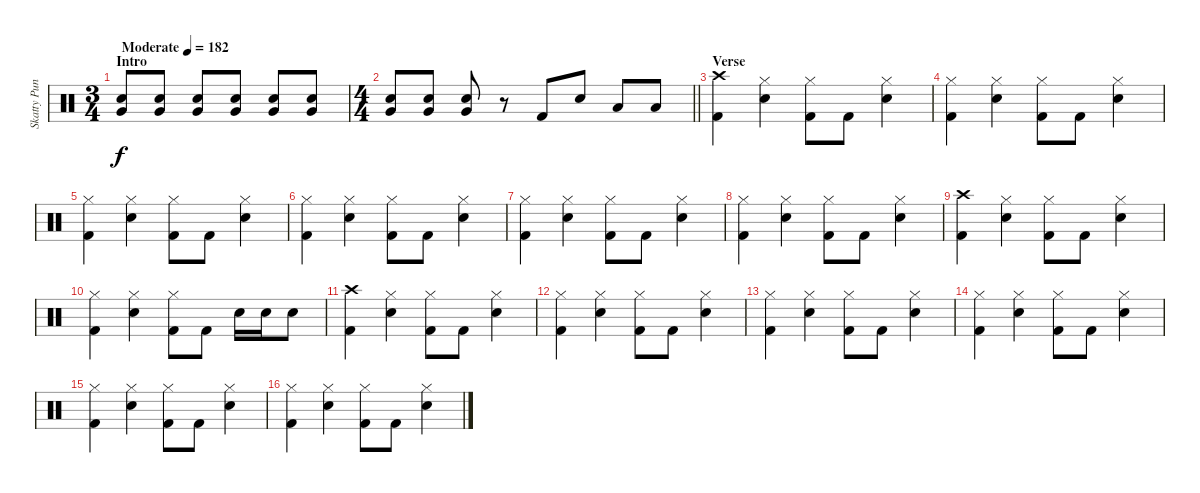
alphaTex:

\track ("Skatty Punk Rock" "Skatty Pun") {instrument percussion}
\staff {score}
\articulation defaults
\ts (3 4)
\section ("" "Intro")
\tempo (182 "Moderate")
\clef neutral
\ks c
("Snare (hit) 2" "Very Low Tom (hit)").8{dy f} ("Snare (hit) 2" "Very Low Tom (hit)").8 ("Snare (hit) 2" "Very Low Tom (hit)").8 ("Snare (hit) 2" "Very Low Tom (hit)").8 ("Snare (hit) 2" "Very Low Tom (hit)").8 ("Snare (hit) 2" "Very Low Tom (hit)").8 |
\ts (4 4)
\barLineRight lightlight
("Snare (hit) 2" "Very Low Tom (hit)").8 ("Snare (hit) 2" "Very Low Tom (hit)").8 ("Snare (hit) 2" "Very Low Tom (hit)").8 r.8 "Kick (hit) 2".8 "Snare (hit) 2".8 "Low Tom (hit)".8 "Low Tom (hit)".8 |
\section ("" "Verse")
("Kick (hit) 2" "Crash high (hit)").4 ("Snare (hit) 2" "Hi-Hat (closed)").4 ("Kick (hit) 2" "Hi-Hat (closed)").8 "Kick (hit) 2".8 ("Snare (hit) 2" "Hi-Hat (closed)").4 |
("Kick (hit) 2" "Hi-Hat (closed)").4 ("Snare (hit) 2" "Hi-Hat (closed)").4 ("Kick (hit) 2" "Hi-Hat (closed)").8 "Kick (hit) 2".8 ("Snare (hit) 2" "Hi-Hat (closed)").4 |
("Kick (hit) 2" "Hi-Hat (closed)").4 ("Snare (hit) 2" "Hi-Hat (closed)").4 ("Kick (hit) 2" "Hi-Hat (closed)").8 "Kick (hit) 2".8 ("Snare (hit) 2" "Hi-Hat (closed)").4 |
("Kick (hit) 2" "Hi-Hat (closed)").4 ("Snare (hit) 2" "Hi-Hat (closed)").4 ("Kick (hit) 2" "Hi-Hat (closed)").8 "Kick (hit) 2".8 ("Snare (hit) 2" "Hi-Hat (closed)").4 |
("Kick (hit) 2" "Hi-Hat (closed)").4 ("Snare (hit) 2" "Hi-Hat (closed)").4 ("Kick (hit) 2" "Hi-Hat (closed)").8 "Kick (hit) 2".8 ("Snare (hit) 2" "Hi-Hat (closed)").4 |
("Kick (hit) 2" "Hi-Hat (closed)").4 ("Snare (hit) 2" "Hi-Hat (closed)").4 ("Kick (hit) 2" "Hi-Hat (closed)").8 "Kick (hit) 2".8 ("Snare (hit) 2" "Hi-Hat (closed)").4 |
("Kick (hit) 2" "Crash high (hit)").4 ("Snare (hit) 2" "Hi-Hat (closed)").4 ("Kick (hit) 2" "Hi-Hat (closed)").8 "Kick (hit) 2".8 ("Snare (hit) 2" "Hi-Hat (closed)").4 |
("Kick (hit) 2" "Hi-Hat (closed)").4 ("Snare (hit) 2" "Hi-Hat (closed)").4 ("Kick (hit) 2" "Hi-Hat (closed)").8 "Kick (hit) 2".8 "Snare (hit) 2".16 "Snare (hit) 2".16 "Snare (hit) 2".8 |
("Kick (hit) 2" "Crash high (hit)").4 ("Snare (hit) 2" "Hi-Hat (closed)").4 ("Kick (hit) 2" "Hi-Hat (closed)").8 "Kick (hit) 2".8 ("Snare (hit) 2" "Hi-Hat (closed)").4 |
("Kick (hit) 2" "Hi-Hat (closed)").4 ("Snare (hit) 2" "Hi-Hat (closed)").4 ("Kick (hit) 2" "Hi-Hat (closed)").8 "Kick (hit) 2".8 ("Snare (hit) 2" "Hi-Hat (closed)").4 |
("Kick (hit) 2" "Hi-Hat (closed)").4 ("Snare (hit) 2" "Hi-Hat (closed)").4 ("Kick (hit) 2" "Hi-Hat (closed)").8 "Kick (hit) 2".8 ("Snare (hit) 2" "Hi-Hat (closed)").4 |
("Kick (hit) 2" "Hi-Hat (closed)").4 ("Snare (hit) 2" "Hi-Hat (closed)").4 ("Kick (hit) 2" "Hi-Hat (closed)").8 "Kick (hit) 2".8 ("Snare (hit) 2" "Hi-Hat (closed)").4 |
("Kick (hit) 2" "Hi-Hat (closed)").4 ("Snare (hit) 2" "Hi-Hat (closed)").4 ("Kick (hit) 2" "Hi-Hat (closed)").8 "Kick (hit) 2".8 ("Snare (hit) 2" "Hi-Hat (closed)").4 |
("Kick (hit) 2" "Hi-Hat (closed)").4 ("Snare (hit) 2" "Hi-Hat (closed)").4 ("Kick (hit) 2" "Hi-Hat (closed)").8 "Kick (hit) 2".8 ("Snare (hit) 2" "Hi-Hat (closed)").4
